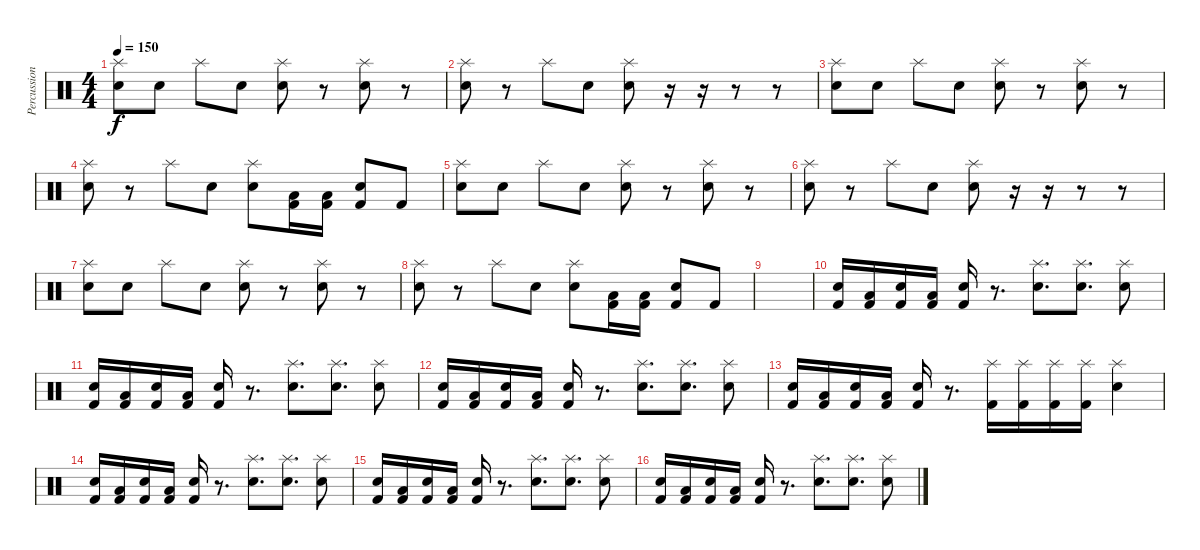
\track ("Percussions" "Percussion") {instrument percussion}
\staff {score}
\articulation defaults
\ts (4 4)
\tempo 150
\clef neutral
\ks c
("Splash (hit)" "Snare (hit) 2").8{dy f} "Electric Snare (hit)".8 "Splash (hit)".8 "Electric Snare (hit)".8 ("Splash (hit)" "Snare (hit) 2").8 r.8 ("Splash (hit)" "Snare (hit) 2").8 r.8 |
("Splash (hit)" "Electric Snare (hit)").8 r.8 "Splash (hit)".8 "Electric Snare (hit)".8 ("Splash (hit)" "Snare (hit) 2").8 r.16 r.16 r.8 r.8 |
("Splash (hit)" "Snare (hit) 2").8 "Electric Snare (hit)".8 "Splash (hit)".8 "Electric Snare (hit)".8 ("Splash (hit)" "Snare (hit) 2").8 r.8 ("Splash (hit)" "Snare (hit) 2").8 r.8 |
("Splash (hit)" "Electric Snare (hit)").8 r.8 "Splash (hit)".8 "Electric Snare (hit)".8 ("Splash (hit)" "Snare (hit) 2").8 ("Low Floor Tom (hit)" "Kick (hit) 2").16 ("Low Floor Tom (hit)" "Kick (hit) 2").16 ("Electric Snare (hit)" "Kick (hit) 2").8 "Kick (hit) 2".8 |
("Splash (hit)" "Snare (hit) 2").8 "Electric Snare (hit)".8 "Splash (hit)".8 "Electric Snare (hit)".8 ("Splash (hit)" "Snare (hit) 2").8 r.8 ("Splash (hit)" "Snare (hit) 2").8 r.8 |
("Splash (hit)" "Electric Snare (hit)").8 r.8 "Splash (hit)".8 "Electric Snare (hit)".8 ("Splash (hit)" "Snare (hit) 2").8 r.16 r.16 r.8 r.8 |
("Splash (hit)" "Snare (hit) 2").8 "Electric Snare (hit)".8 "Splash (hit)".8 "Electric Snare (hit)".8 ("Splash (hit)" "Snare (hit) 2").8 r.8 ("Splash (hit)" "Snare (hit) 2").8 r.8 |
("Splash (hit)" "Electric Snare (hit)").8 r.8 "Splash (hit)".8 "Electric Snare (hit)".8 ("Splash (hit)" "Snare (hit) 2").8 ("Low Floor Tom (hit)" "Kick (hit) 2").16 ("Low Floor Tom (hit)" "Kick (hit) 2").16 ("Electric Snare (hit)" "Kick (hit) 2").8 "Kick (hit) 2".8 |
|
("Electric Snare (hit)" "Kick (hit) 2").16 ("Low Floor Tom (hit)" "Kick (hit) 2").16 ("Electric Snare (hit)" "Kick (hit) 2").16 ("Low Floor Tom (hit)" "Kick (hit) 2").16 ("Electric Snare (hit)" "Kick (hit) 2").16 r.8{d} ("Splash (hit)" "Electric Snare (hit)").8{d} ("Splash (hit)" "Electric Snare (hit)").8{d} ("Splash (hit)" "Electric Snare (hit)").8 |
("Electric Snare (hit)" "Kick (hit) 2").16 ("Low Floor Tom (hit)" "Kick (hit) 2").16 ("Electric Snare (hit)" "Kick (hit) 2").16 ("Low Floor Tom (hit)" "Kick (hit) 2").16 ("Electric Snare (hit)" "Kick (hit) 2").16 r.8{d} ("Splash (hit)" "Electric Snare (hit)").8{d} ("Splash (hit)" "Electric Snare (hit)").8{d} ("Splash (hit)" "Electric Snare (hit)").8 |
("Electric Snare (hit)" "Kick (hit) 2").16 ("Low Floor Tom (hit)" "Kick (hit) 2").16 ("Electric Snare (hit)" "Kick (hit) 2").16 ("Low Floor Tom (hit)" "Kick (hit) 2").16 ("Electric Snare (hit)" "Kick (hit) 2").16 r.8{d} ("Splash (hit)" "Electric Snare (hit)").8{d} ("Splash (hit)" "Electric Snare (hit)").8{d} ("Splash (hit)" "Electric Snare (hit)").8 |
("Electric Snare (hit)" "Kick (hit) 2").16 ("Low Floor Tom (hit)" "Kick (hit) 2").16 ("Electric Snare (hit)" "Kick (hit) 2").16 ("Low Floor Tom (hit)" "Kick (hit) 2").16 ("Electric Snare (hit)" "Kick (hit) 2").16 r.8{d} ("Splash (hit)" "Kick (hit) 2").16 ("Splash (hit)" "Kick (hit) 2").16 ("Splash (hit)" "Kick (hit) 2").16 ("Splash (hit)" "Kick (hit) 2").16 ("Splash (hit)" "Electric Snare (hit)").4 |
("Electric Snare (hit)" "Kick (hit) 2").16 ("Low Floor Tom (hit)" "Kick (hit) 2").16 ("Electric Snare (hit)" "Kick (hit) 2").16 ("Low Floor Tom (hit)" "Kick (hit) 2").16 ("Electric Snare (hit)" "Kick (hit) 2").16 r.8{d} ("Splash (hit)" "Electric Snare (hit)").8{d} ("Splash (hit)" "Electric Snare (hit)").8{d} ("Splash (hit)" "Electric Snare (hit)").8 |
("Electric Snare (hit)" "Kick (hit) 2").16 ("Low Floor Tom (hit)" "Kick (hit) 2").16 ("Electric Snare (hit)" "Kick (hit) 2").16 ("Low Floor Tom (hit)" "Kick (hit) 2").16 ("Electric Snare (hit)" "Kick (hit) 2").16 r.8{d} ("Splash (hit)" "Electric Snare (hit)").8{d} ("Splash (hit)" "Electric Snare (hit)").8{d} ("Splash (hit)" "Electric Snare (hit)").8 |
("Electric Snare (hit)" "Kick (hit) 2").16 ("Low Floor Tom (hit)" "Kick (hit) 2").16 ("Electric Snare (hit)" "Kick (hit) 2").16 ("Low Floor Tom (hit)" "Kick (hit) 2").16 ("Electric Snare (hit)" "Kick (hit) 2").16 r.8{d} ("Splash (hit)" "Electric Snare (hit)").8{d} ("Splash (hit)" "Electric Snare (hit)").8{d} ("Splash (hit)" "Electric Snare (hit)").8
